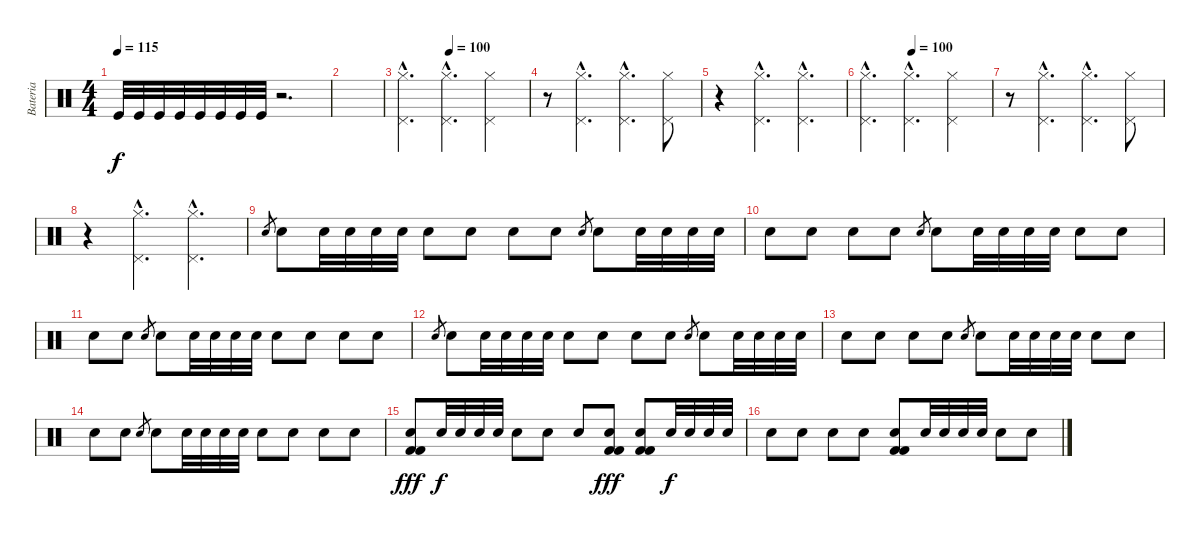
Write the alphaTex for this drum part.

\track ("Bateria" "Bateria") {instrument percussion}
\staff {score}
\articulation defaults
\ts (4 4)
\tempo 115
\clef neutral
\ks c "Kick (hit)".32{dy f} "Kick (hit)".32 "Kick (hit)".32 "Kick (hit)".32 "Kick (hit)".32 "Kick (hit)".32 "Kick (hit)".32 "Kick (hit)".32
r.2{d} |
|
\section ("" "")
\tempo (100 0.375)
("Pedal Hi-Hat (hit)"{hac} "Hi-Hat (closed)"{hac}).4{d volume 0} ("Pedal Hi-Hat (hit)"{hac} "Hi-Hat (closed)"{hac}).4{d volume 14} ("Pedal Hi-Hat (hit)" "Hi-Hat (closed)").4 |
r.8 ("Pedal Hi-Hat (hit)"{hac} "Hi-Hat (closed)"{hac}).4{d} ("Pedal Hi-Hat (hit)"{hac} "Hi-Hat (closed)"{hac}).4{d} ("Pedal Hi-Hat (hit)" "Hi-Hat (closed)").8 |
r.4 ("Pedal Hi-Hat (hit)"{hac} "Hi-Hat (closed)"{hac}).4{d} ("Pedal Hi-Hat (hit)"{hac} "Hi-Hat (closed)"{hac}).4{d} |
\tempo (100 0.375)
("Pedal Hi-Hat (hit)"{hac} "Hi-Hat (closed)"{hac}).4{d} ("Pedal Hi-Hat (hit)"{hac} "Hi-Hat (closed)"{hac}).4{d} ("Pedal Hi-Hat (hit)" "Hi-Hat (closed)").4 |
r.8 ("Pedal Hi-Hat (hit)"{hac} "Hi-Hat (closed)"{hac}).4{d} ("Pedal Hi-Hat (hit)"{hac} "Hi-Hat (closed)"{hac}).4{d} ("Pedal Hi-Hat (hit)" "Hi-Hat (closed)").8 |
r.4 ("Pedal Hi-Hat (hit)"{hac} "Hi-Hat (closed)"{hac}).4{d} ("Pedal Hi-Hat (hit)"{hac} "Hi-Hat (closed)"{hac}).4{d} |
\section ("" "")
"Snare (hit) 2".8{gr} "Snare (hit) 2".8 "Snare (hit) 2".32 "Snare (hit) 2".32 "Snare (hit) 2".32 "Snare (hit) 2".32 "Snare (hit) 2".8 "Snare (hit) 2".8 "Snare (hit) 2".8 "Snare (hit) 2".8 "Snare (hit) 2".8{gr} "Snare (hit) 2".8 "Snare (hit) 2".32 "Snare (hit) 2".32 "Snare (hit) 2".32 "Snare (hit) 2".32 |
"Snare (hit) 2".8 "Snare (hit) 2".8 "Snare (hit) 2".8 "Snare (hit) 2".8 "Snare (hit) 2".8{gr} "Snare (hit) 2".8 "Snare (hit) 2".32 "Snare (hit) 2".32 "Snare (hit) 2".32 "Snare (hit) 2".32 "Snare (hit) 2".8 "Snare (hit) 2".8 |
"Snare (hit) 2".8 "Snare (hit) 2".8 "Snare (hit) 2".8{gr} "Snare (hit) 2".8 "Snare (hit) 2".32 "Snare (hit) 2".32 "Snare (hit) 2".32 "Snare (hit) 2".32 "Snare (hit) 2".8 "Snare (hit) 2".8 "Snare (hit) 2".8 "Snare (hit) 2".8 |
"Snare (hit) 2".8{gr} "Snare (hit) 2".8 "Snare (hit) 2".32 "Snare (hit) 2".32 "Snare (hit) 2".32 "Snare (hit) 2".32 "Snare (hit) 2".8 "Snare (hit) 2".8 "Snare (hit) 2".8 "Snare (hit) 2".8 "Snare (hit) 2".8{gr} "Snare (hit) 2".8 "Snare (hit) 2".32 "Snare (hit) 2".32 "Snare (hit) 2".32 "Snare (hit) 2".32 |
"Snare (hit) 2".8 "Snare (hit) 2".8 "Snare (hit) 2".8 "Snare (hit) 2".8 "Snare (hit) 2".8{gr} "Snare (hit) 2".8 "Snare (hit) 2".32 "Snare (hit) 2".32 "Snare (hit) 2".32 "Snare (hit) 2".32 "Snare (hit) 2".8 "Snare (hit) 2".8 |
"Snare (hit) 2".8 "Snare (hit) 2".8 "Snare (hit) 2".8{gr} "Snare (hit) 2".8 "Snare (hit) 2".32 "Snare (hit) 2".32 "Snare (hit) 2".32 "Snare (hit) 2".32 "Snare (hit) 2".8 "Snare (hit) 2".8 "Snare (hit) 2".8 "Snare (hit) 2".8 |
\section ("" "")
("Snare (hit) 2" "Kick (hit) 2" "Kick (hit) 2").8{dy fff} "Snare (hit) 2".32{dy f} "Snare (hit) 2".32 "Snare (hit) 2".32 "Snare (hit) 2".32 "Snare (hit) 2".8 "Snare (hit) 2".8 "Snare (hit) 2".8 ("Snare (hit) 2" "Kick (hit) 2" "Kick (hit) 2").8{dy fff} ("Snare (hit) 2" "Kick (hit) 2" "Kick (hit) 2").8 "Snare (hit) 2".32{dy f} "Snare (hit) 2".32 "Snare (hit) 2".32 "Snare (hit) 2".32 |
"Snare (hit) 2".8 "Snare (hit) 2".8 "Snare (hit) 2".8 "Snare (hit) 2".8 ("Snare (hit) 2" "Kick (hit) 2" "Kick (hit) 2").8 "Snare (hit) 2".32 "Snare (hit) 2".32 "Snare (hit) 2".32 "Snare (hit) 2".32 "Snare (hit) 2".8 "Snare (hit) 2".8
